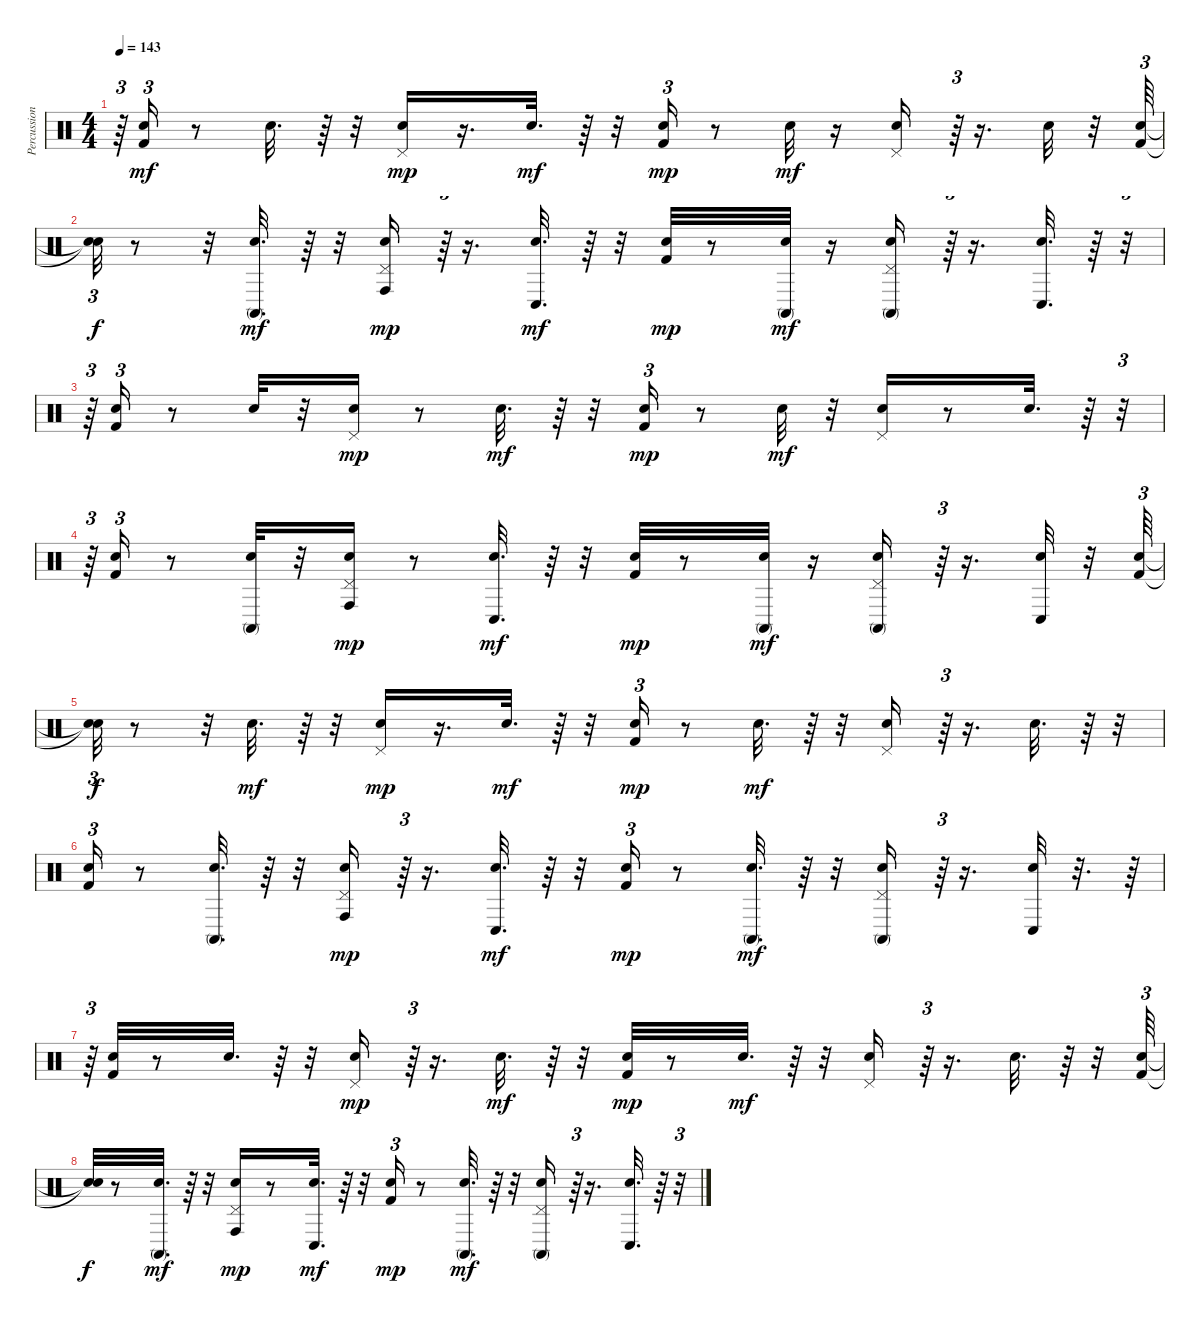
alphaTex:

\track ("Percussion" "Percussion") {instrument percussion}
\staff {score}
\articulation defaults
\ts (4 4)
\tempo 143
\clef neutral
\ks c
r.64{tu (3 2) dy mf} ("Kick (hit) 2" "Snare (hit) 2").16{tu (3 2)} r.8 "Snare (hit) 2".32{d} r.64 r.32 ("Pedal Hi-Hat (hit)" "Hand Clap (hit)").16{dy mp} r.16{d} "Hand Clap (hit)".32{d dy mf} r.64 r.32 ("Kick (hit) 2" "Snare (hit) 2").16{tu (3 2) dy mp} r.8 "Snare (hit) 2".32{dy mf} r.16 ("Pedal Hi-Hat (hit)" "Hand Clap (hit)").16 r.64{tu (3 2)} r.16{d} "Hand Clap (hit)".32 r.32 ("Kick (hit) 2" "Snare (hit) 2").64{tu (3 2)} |
("Snare (hit)"{t} "Snare (hit)"{t}).32{tu (3 2) dy f} r.8 r.32 ("Snare (hit) 2" "Conga high (mute)").32{d dy mf} r.64 r.32 ("Hand Clap (hit)" "Pedal Hi-Hat (hit)" "Conga high (hit)").16{dy mp} r.64{tu (3 2)} r.16{d} ("Hand Clap (hit)" "Conga low (hit)").32{d dy mf} r.64 r.32 ("Kick (hit) 2" "Snare (hit) 2").32{dy mp} r.8 ("Snare (hit) 2" "Conga high (mute)").32{dy mf} r.16 ("Hand Clap (hit)" "Pedal Hi-Hat (hit)" "Conga high (mute)").16 r.64{tu (3 2)} r.16{d} ("Hand Clap (hit)" "Conga low (hit)").32{d} r.64 r.32{tu (3 2)} |
r.64{tu (3 2)} ("Kick (hit) 2" "Snare (hit) 2").16{tu (3 2)} r.8 "Snare (hit) 2".32 r.32 ("Hand Clap (hit)" "Pedal Hi-Hat (hit)").16{dy mp} r.8 "Hand Clap (hit)".32{d dy mf} r.64 r.32 ("Kick (hit) 2" "Snare (hit) 2").16{tu (3 2) dy mp} r.8 "Snare (hit) 2".32{dy mf} r.32 ("Hand Clap (hit)" "Pedal Hi-Hat (hit)").16 r.8 "Hand Clap (hit)".32{d} r.64 r.32{tu (3 2)} |
r.64{tu (3 2)} ("Kick (hit) 2" "Snare (hit) 2").16{tu (3 2)} r.8 ("Snare (hit) 2" "Conga high (mute)").32 r.32 ("Pedal Hi-Hat (hit)" "Hand Clap (hit)" "Conga high (hit)").16{dy mp} r.8 ("Hand Clap (hit)" "Conga low (hit)").32{d dy mf} r.64 r.32 ("Kick (hit) 2" "Snare (hit) 2").32{dy mp} r.8 ("Snare (hit) 2" "Conga high (mute)").32{dy mf} r.16 ("Hand Clap (hit)" "Pedal Hi-Hat (hit)" "Conga high (mute)").16 r.64{tu (3 2)} r.16{d} ("Hand Clap (hit)" "Conga low (hit)").32 r.32 ("Kick (hit) 2" "Snare (hit) 2").64{tu (3 2)} |
("Snare (hit)"{t} "Snare (hit)"{t}).32{tu (3 2) dy f} r.8 r.32 "Snare (hit) 2".32{d dy mf} r.64 r.32 ("Pedal Hi-Hat (hit)" "Hand Clap (hit)").16{dy mp} r.16{d} "Hand Clap (hit)".32{d dy mf} r.64 r.32 ("Kick (hit) 2" "Snare (hit) 2").16{tu (3 2) dy mp} r.8 "Snare (hit) 2".32{d dy mf} r.64 r.32 ("Hand Clap (hit)" "Pedal Hi-Hat (hit)").16 r.64{tu (3 2)} r.16{d} "Hand Clap (hit)".32{d} r.64 r.32 |
("Kick (hit) 2" "Snare (hit) 2").16{tu (3 2)} r.8 ("Snare (hit) 2" "Conga high (mute)").32{d} r.64 r.32 ("Hand Clap (hit)" "Pedal Hi-Hat (hit)" "Conga high (hit)").16{dy mp} r.64{tu (3 2)} r.16{d} ("Hand Clap (hit)" "Conga low (hit)").32{d dy mf} r.64 r.32 ("Kick (hit) 2" "Snare (hit) 2").16{tu (3 2) dy mp} r.8 ("Snare (hit) 2" "Conga high (mute)").32{d dy mf} r.64 r.32 ("Hand Clap (hit)" "Pedal Hi-Hat (hit)" "Conga high (mute)").16 r.64{tu (3 2)} r.16{d} ("Hand Clap (hit)" "Conga low (hit)").32 r.32{d} r.64 |
r.64{tu (3 2)} ("Kick (hit) 2" "Snare (hit) 2").32 r.8 "Snare (hit) 2".32{d} r.64 r.32 ("Hand Clap (hit)" "Pedal Hi-Hat (hit)").16{dy mp} r.64{tu (3 2)} r.16{d} "Hand Clap (hit)".32{d dy mf} r.64 r.32 ("Kick (hit) 2" "Snare (hit) 2").32{dy mp} r.8 "Snare (hit) 2".32{d dy mf} r.64 r.32 ("Hand Clap (hit)" "Pedal Hi-Hat (hit)").16 r.64{tu (3 2)} r.16{d} "Hand Clap (hit)".32{d} r.64 r.32 ("Kick (hit) 2" "Snare (hit) 2").64{tu (3 2)} |
("Snare (hit)"{t} "Snare (hit)"{t}).32{dy f} r.8 ("Snare (hit) 2" "Conga high (mute)").32{d dy mf} r.64 r.32 ("Hand Clap (hit)" "Pedal Hi-Hat (hit)" "Conga high (hit)").16{dy mp} r.8 ("Hand Clap (hit)" "Conga low (hit)").32{d dy mf} r.64 r.32 ("Kick (hit) 2" "Snare (hit) 2").16{tu (3 2) dy mp} r.8 ("Snare (hit) 2" "Conga high (mute)").32{d dy mf} r.64 r.32 ("Hand Clap (hit)" "Pedal Hi-Hat (hit)" "Conga high (mute)").16 r.64{tu (3 2)} r.16{d} ("Hand Clap (hit)" "Conga low (hit)").32{d} r.64 r.32{tu (3 2)}
